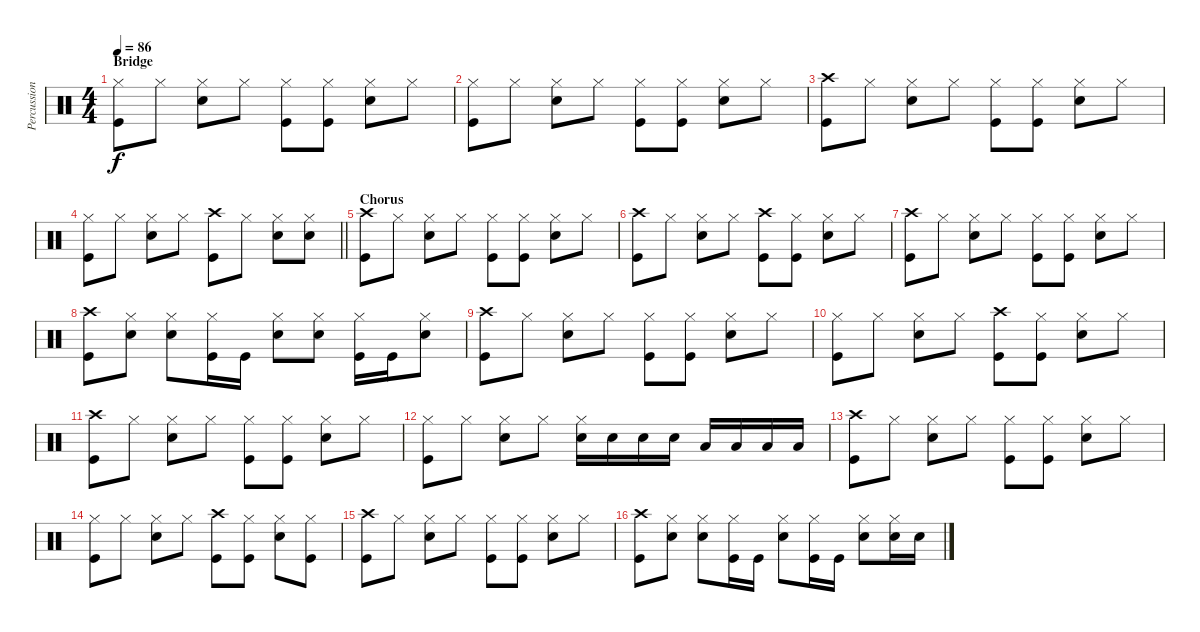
\track ("Percussion" "Percussion") {instrument percussion}
\staff {score}
\articulation defaults
\ts (4 4)
\section ("" "Bridge")
\tempo 86
\clef neutral
\ks c
("Hi-Hat (closed)" "Kick (hit)").8{dy f} "Hi-Hat (closed)".8 ("Hi-Hat (closed)" "Electric Snare (hit)").8 "Hi-Hat (closed)".8 ("Hi-Hat (closed)" "Kick (hit)").8 ("Hi-Hat (closed)" "Kick (hit)").8 ("Hi-Hat (closed)" "Electric Snare (hit)").8 "Hi-Hat (closed)".8 |
("Hi-Hat (closed)" "Kick (hit)").8 "Hi-Hat (closed)".8 ("Hi-Hat (closed)" "Electric Snare (hit)").8 "Hi-Hat (closed)".8 ("Hi-Hat (closed)" "Kick (hit)").8 ("Hi-Hat (closed)" "Kick (hit)").8 ("Hi-Hat (closed)" "Electric Snare (hit)").8 "Hi-Hat (closed)".8 |
("Crash high (hit)" "Kick (hit)").8 "Hi-Hat (closed)".8 ("Hi-Hat (closed)" "Electric Snare (hit)").8 "Hi-Hat (closed)".8 ("Hi-Hat (closed)" "Kick (hit)").8 ("Hi-Hat (closed)" "Kick (hit)").8 ("Hi-Hat (closed)" "Electric Snare (hit)").8 "Hi-Hat (closed)".8 |
\barLineRight lightlight
("Hi-Hat (closed)" "Kick (hit)").8 "Hi-Hat (closed)".8 ("Hi-Hat (closed)" "Electric Snare (hit)").8 "Hi-Hat (closed)".8 ("Crash high (hit)" "Kick (hit)").8 "Hi-Hat (closed)".8 ("Hi-Hat (closed)" "Electric Snare (hit)").8 ("Hi-Hat (closed)" "Electric Snare (hit)").8 |
\section ("" "Chorus")
("Crash high (hit)" "Kick (hit)").8 "Hi-Hat (closed)".8 ("Hi-Hat (closed)" "Electric Snare (hit)").8 "Hi-Hat (closed)".8 ("Hi-Hat (closed)" "Kick (hit)").8 ("Hi-Hat (closed)" "Kick (hit)").8 ("Hi-Hat (closed)" "Electric Snare (hit)").8 "Hi-Hat (closed)".8 |
("Crash high (hit)" "Kick (hit)").8 "Hi-Hat (closed)".8 ("Hi-Hat (closed)" "Electric Snare (hit)").8 "Hi-Hat (closed)".8 ("Crash high (hit)" "Kick (hit)").8 ("Hi-Hat (closed)" "Kick (hit)").8 ("Hi-Hat (closed)" "Electric Snare (hit)").8 "Hi-Hat (closed)".8 |
("Crash high (hit)" "Kick (hit)").8 "Hi-Hat (closed)".8 ("Hi-Hat (closed)" "Electric Snare (hit)").8 "Hi-Hat (closed)".8 ("Hi-Hat (closed)" "Kick (hit)").8 ("Hi-Hat (closed)" "Kick (hit)").8 ("Hi-Hat (closed)" "Electric Snare (hit)").8 "Hi-Hat (closed)".8 |
("Crash high (hit)" "Kick (hit)").8 ("Hi-Hat (closed)" "Electric Snare (hit)").8 ("Hi-Hat (closed)" "Electric Snare (hit)").8 ("Hi-Hat (closed)" "Kick (hit)").16 "Kick (hit)".16 ("Hi-Hat (closed)" "Electric Snare (hit)").8 ("Hi-Hat (closed)" "Electric Snare (hit)").8 ("Hi-Hat (closed)" "Kick (hit)").16 "Kick (hit)".16 ("Hi-Hat (closed)" "Electric Snare (hit)").8 |
("Crash high (hit)" "Kick (hit)").8 "Hi-Hat (closed)".8 ("Hi-Hat (closed)" "Electric Snare (hit)").8 "Hi-Hat (closed)".8 ("Hi-Hat (closed)" "Kick (hit)").8 ("Hi-Hat (closed)" "Kick (hit)").8 ("Hi-Hat (closed)" "Electric Snare (hit)").8 "Hi-Hat (closed)".8 |
("Hi-Hat (closed)" "Kick (hit)").8 "Hi-Hat (closed)".8 ("Hi-Hat (closed)" "Electric Snare (hit)").8 "Hi-Hat (closed)".8 ("Crash high (hit)" "Kick (hit)").8 ("Hi-Hat (closed)" "Kick (hit)").8 ("Hi-Hat (closed)" "Electric Snare (hit)").8 "Hi-Hat (closed)".8 |
("Crash high (hit)" "Kick (hit)").8 "Hi-Hat (closed)".8 ("Hi-Hat (closed)" "Electric Snare (hit)").8 "Hi-Hat (closed)".8 ("Hi-Hat (closed)" "Kick (hit)").8 ("Hi-Hat (closed)" "Kick (hit)").8 ("Hi-Hat (closed)" "Electric Snare (hit)").8 "Hi-Hat (closed)".8 |
("Hi-Hat (closed)" "Kick (hit)").8 "Hi-Hat (closed)".8 ("Hi-Hat (closed)" "Electric Snare (hit)").8 "Hi-Hat (closed)".8 ("Hi-Hat (closed)" "Electric Snare (hit)").16 "Electric Snare (hit)".16 "Electric Snare (hit)".16 "Electric Snare (hit)".16 "Low Tom (hit)".16 "Low Tom (hit)".16 "Low Tom (hit)".16 "Low Tom (hit)".16 |
("Crash high (hit)" "Kick (hit)").8 "Hi-Hat (closed)".8 ("Hi-Hat (closed)" "Electric Snare (hit)").8 "Hi-Hat (closed)".8 ("Hi-Hat (closed)" "Kick (hit)").8 ("Hi-Hat (closed)" "Kick (hit)").8 ("Hi-Hat (closed)" "Electric Snare (hit)").8 "Hi-Hat (closed)".8 |
("Hi-Hat (closed)" "Kick (hit)").8 "Hi-Hat (closed)".8 ("Hi-Hat (closed)" "Electric Snare (hit)").8 "Hi-Hat (closed)".8 ("Crash high (hit)" "Kick (hit)").8 ("Hi-Hat (closed)" "Kick (hit)").8 ("Hi-Hat (closed)" "Electric Snare (hit)").8 ("Hi-Hat (closed)" "Kick (hit)").8 |
("Crash high (hit)" "Kick (hit)").8 "Hi-Hat (closed)".8 ("Hi-Hat (closed)" "Electric Snare (hit)").8 "Hi-Hat (closed)".8 ("Hi-Hat (closed)" "Kick (hit)").8 ("Hi-Hat (closed)" "Kick (hit)").8 ("Hi-Hat (closed)" "Electric Snare (hit)").8 "Hi-Hat (closed)".8 |
("Crash high (hit)" "Kick (hit)").8 ("Hi-Hat (closed)" "Electric Snare (hit)").8 ("Hi-Hat (closed)" "Electric Snare (hit)").8 ("Hi-Hat (closed)" "Kick (hit)").16 "Kick (hit)".16 ("Hi-Hat (closed)" "Electric Snare (hit)").8 ("Hi-Hat (closed)" "Kick (hit)").16 "Kick (hit)".16 ("Hi-Hat (closed)" "Electric Snare (hit)").8 ("Hi-Hat (closed)" "Electric Snare (hit)").16 "Electric Snare (hit)".16
